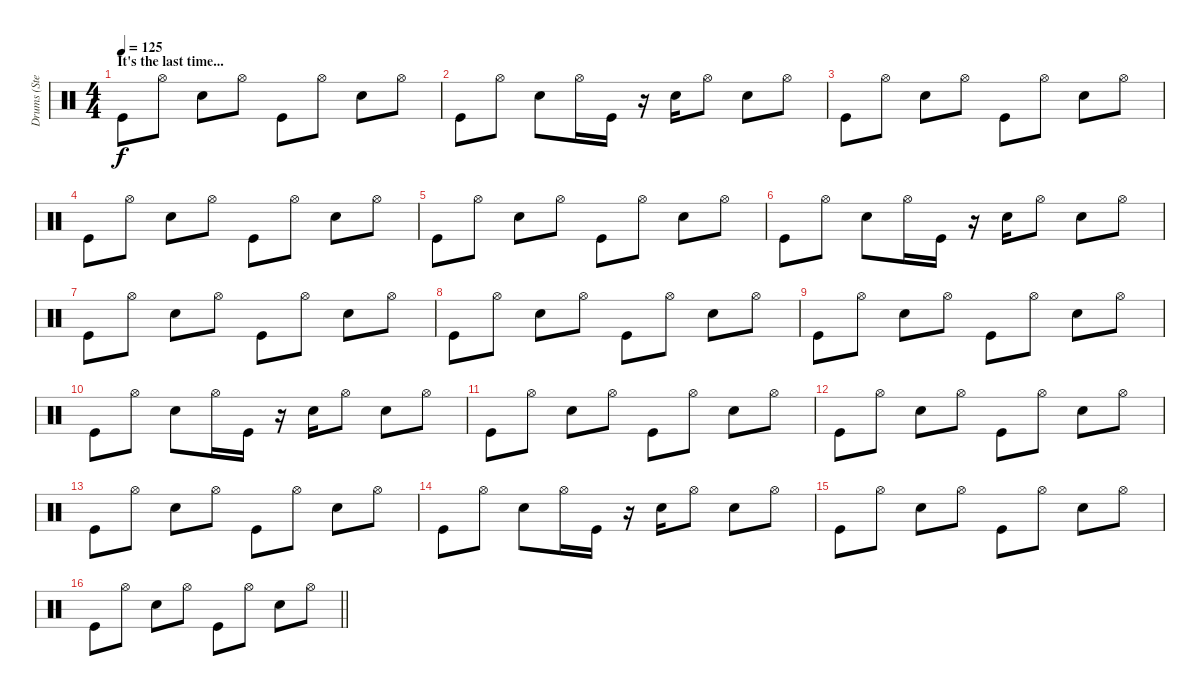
\track ("Drums (Steve)" "Drums (Ste") {instrument percussion}
\staff {score}
\articulation defaults
\ts (4 4)
\section ("" "It's the last time...")
\tempo 125
\clef neutral
\ks c "Kick (hit)".8{dy f} "Hi-Hat (open)".8 "Electric Snare (hit)".8 "Hi-Hat (open)".8 "Kick (hit)".8 "Hi-Hat (open)".8 "Electric Snare (hit)".8 "Hi-Hat (open)".8
|
"Kick (hit)".8 "Hi-Hat (open)".8 "Electric Snare (hit)".8 "Hi-Hat (open)".16 "Kick (hit)".16 r.16 "Electric Snare (hit)".16 "Hi-Hat (open)".8 "Electric Snare (hit)".8 "Hi-Hat (open)".8 |
"Kick (hit)".8 "Hi-Hat (open)".8 "Electric Snare (hit)".8 "Hi-Hat (open)".8 "Kick (hit)".8 "Hi-Hat (open)".8 "Electric Snare (hit)".8 "Hi-Hat (open)".8 |
"Kick (hit)".8 "Hi-Hat (open)".8 "Electric Snare (hit)".8 "Hi-Hat (open)".8 "Kick (hit)".8 "Hi-Hat (open)".8 "Electric Snare (hit)".8 "Hi-Hat (open)".8 |
"Kick (hit)".8 "Hi-Hat (open)".8 "Electric Snare (hit)".8 "Hi-Hat (open)".8 "Kick (hit)".8 "Hi-Hat (open)".8 "Electric Snare (hit)".8 "Hi-Hat (open)".8 |
"Kick (hit)".8 "Hi-Hat (open)".8 "Electric Snare (hit)".8 "Hi-Hat (open)".16 "Kick (hit)".16 r.16 "Electric Snare (hit)".16 "Hi-Hat (open)".8 "Electric Snare (hit)".8 "Hi-Hat (open)".8 |
"Kick (hit)".8 "Hi-Hat (open)".8 "Electric Snare (hit)".8 "Hi-Hat (open)".8 "Kick (hit)".8 "Hi-Hat (open)".8 "Electric Snare (hit)".8 "Hi-Hat (open)".8 |
"Kick (hit)".8 "Hi-Hat (open)".8 "Electric Snare (hit)".8 "Hi-Hat (open)".8 "Kick (hit)".8 "Hi-Hat (open)".8 "Electric Snare (hit)".8 "Hi-Hat (open)".8 |
"Kick (hit)".8 "Hi-Hat (open)".8 "Electric Snare (hit)".8 "Hi-Hat (open)".8 "Kick (hit)".8 "Hi-Hat (open)".8 "Electric Snare (hit)".8 "Hi-Hat (open)".8 |
"Kick (hit)".8 "Hi-Hat (open)".8 "Electric Snare (hit)".8 "Hi-Hat (open)".16 "Kick (hit)".16 r.16 "Electric Snare (hit)".16 "Hi-Hat (open)".8 "Electric Snare (hit)".8 "Hi-Hat (open)".8 |
"Kick (hit)".8 "Hi-Hat (open)".8 "Electric Snare (hit)".8 "Hi-Hat (open)".8 "Kick (hit)".8 "Hi-Hat (open)".8 "Electric Snare (hit)".8 "Hi-Hat (open)".8 |
"Kick (hit)".8 "Hi-Hat (open)".8 "Electric Snare (hit)".8 "Hi-Hat (open)".8 "Kick (hit)".8 "Hi-Hat (open)".8 "Electric Snare (hit)".8 "Hi-Hat (open)".8 |
"Kick (hit)".8 "Hi-Hat (open)".8 "Electric Snare (hit)".8 "Hi-Hat (open)".8 "Kick (hit)".8 "Hi-Hat (open)".8 "Electric Snare (hit)".8 "Hi-Hat (open)".8 |
"Kick (hit)".8 "Hi-Hat (open)".8 "Electric Snare (hit)".8 "Hi-Hat (open)".16 "Kick (hit)".16 r.16 "Electric Snare (hit)".16 "Hi-Hat (open)".8 "Electric Snare (hit)".8 "Hi-Hat (open)".8 |
"Kick (hit)".8 "Hi-Hat (open)".8 "Electric Snare (hit)".8 "Hi-Hat (open)".8 "Kick (hit)".8 "Hi-Hat (open)".8 "Electric Snare (hit)".8 "Hi-Hat (open)".8 |
\barLineRight lightlight "Kick (hit)".8 "Hi-Hat (open)".8 "Electric Snare (hit)".8 "Hi-Hat (open)".8 "Kick (hit)".8 "Hi-Hat (open)".8 "Electric Snare (hit)".8 "Hi-Hat (open)".8
